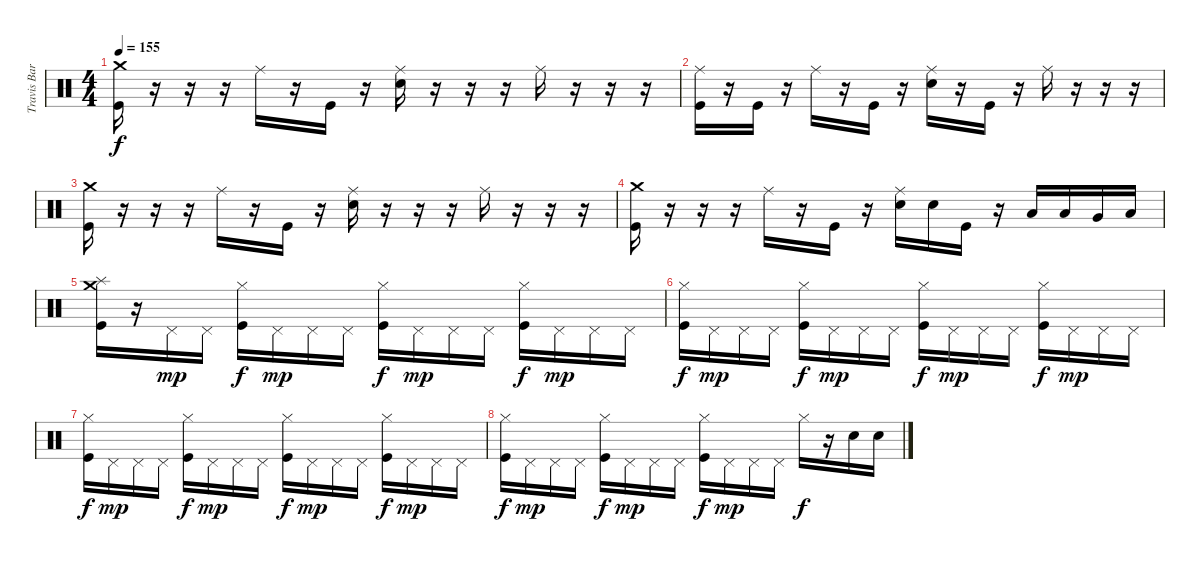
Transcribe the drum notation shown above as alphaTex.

\track ("Travis Barker(drums)" "Travis Bar") {instrument percussion}
\staff {score}
\articulation defaults
\ts (4 4)
\tempo 155
\clef neutral
\ks c
("Crash medium (hit)" "Kick (hit)").16{dy f} r.16 r.16 r.16 "Ride (middle)".16 r.16 "Kick (hit)".16 r.16 ("Ride (middle)" "Electric Snare (hit)").16 r.16 r.16 r.16 "Ride (middle)".16 r.16 r.16 r.16 |
("Ride (middle)" "Kick (hit)").16 r.16 "Kick (hit)".16 r.16 "Ride (middle)".16 r.16 "Kick (hit)".16 r.16 ("Ride (middle)" "Electric Snare (hit)").16 r.16 "Kick (hit)".16 r.16 "Ride (middle)".16 r.16 r.16 r.16 |
("Crash medium (hit)" "Kick (hit)").16 r.16 r.16 r.16 "Ride (middle)".16 r.16 "Kick (hit)".16 r.16 ("Ride (middle)" "Electric Snare (hit)").16 r.16 r.16 r.16 "Ride (middle)".16 r.16 r.16 r.16 |
("Crash medium (hit)" "Kick (hit)").16 r.16 r.16 r.16 "Ride (middle)".16 r.16 "Kick (hit)".16 r.16 ("Ride (middle)" "Electric Snare (hit)").16 "Electric Snare (hit)".16 "Kick (hit)".16 r.16 "Low Tom (hit)".16 "Low Tom (hit)".16 "Very Low Tom (hit)".16 "Low Floor Tom (hit)".16 |
("Crash medium (hit)" "Splash (hit)" "Kick (hit)").16 r.16 "Pedal Hi-Hat (hit)".16{dy mp} "Pedal Hi-Hat (hit)".16 ("Hi-Hat (closed)" "Kick (hit)").16{dy f} "Pedal Hi-Hat (hit)".16{dy mp} "Pedal Hi-Hat (hit)".16 "Pedal Hi-Hat (hit)".16 ("Hi-Hat (closed)" "Kick (hit)").16{dy f} "Pedal Hi-Hat (hit)".16{dy mp} "Pedal Hi-Hat (hit)".16 "Pedal Hi-Hat (hit)".16 ("Hi-Hat (closed)" "Kick (hit)").16{dy f} "Pedal Hi-Hat (hit)".16{dy mp} "Pedal Hi-Hat (hit)".16 "Pedal Hi-Hat (hit)".16 |
("Hi-Hat (closed)" "Kick (hit)").16{dy f} "Pedal Hi-Hat (hit)".16{dy mp} "Pedal Hi-Hat (hit)".16 "Pedal Hi-Hat (hit)".16 ("Hi-Hat (closed)" "Kick (hit)").16{dy f} "Pedal Hi-Hat (hit)".16{dy mp} "Pedal Hi-Hat (hit)".16 "Pedal Hi-Hat (hit)".16 ("Hi-Hat (closed)" "Kick (hit)").16{dy f} "Pedal Hi-Hat (hit)".16{dy mp} "Pedal Hi-Hat (hit)".16 "Pedal Hi-Hat (hit)".16 ("Hi-Hat (closed)" "Kick (hit)").16{dy f} "Pedal Hi-Hat (hit)".16{dy mp} "Pedal Hi-Hat (hit)".16 "Pedal Hi-Hat (hit)".16 |
("Hi-Hat (closed)" "Kick (hit)").16{dy f} "Pedal Hi-Hat (hit)".16{dy mp} "Pedal Hi-Hat (hit)".16 "Pedal Hi-Hat (hit)".16 ("Hi-Hat (closed)" "Kick (hit)").16{dy f} "Pedal Hi-Hat (hit)".16{dy mp} "Pedal Hi-Hat (hit)".16 "Pedal Hi-Hat (hit)".16 ("Hi-Hat (closed)" "Kick (hit)").16{dy f} "Pedal Hi-Hat (hit)".16{dy mp} "Pedal Hi-Hat (hit)".16 "Pedal Hi-Hat (hit)".16 ("Hi-Hat (closed)" "Kick (hit)").16{dy f} "Pedal Hi-Hat (hit)".16{dy mp} "Pedal Hi-Hat (hit)".16 "Pedal Hi-Hat (hit)".16 |
("Hi-Hat (closed)" "Kick (hit)").16{dy f} "Pedal Hi-Hat (hit)".16{dy mp} "Pedal Hi-Hat (hit)".16 "Pedal Hi-Hat (hit)".16 ("Hi-Hat (closed)" "Kick (hit)").16{dy f} "Pedal Hi-Hat (hit)".16{dy mp} "Pedal Hi-Hat (hit)".16 "Pedal Hi-Hat (hit)".16 ("Hi-Hat (closed)" "Kick (hit)").16{dy f} "Pedal Hi-Hat (hit)".16{dy mp} "Pedal Hi-Hat (hit)".16 "Pedal Hi-Hat (hit)".16 "Hi-Hat (closed)".16{dy f} r.16 "Electric Snare (hit)".16 "Electric Snare (hit)".16
